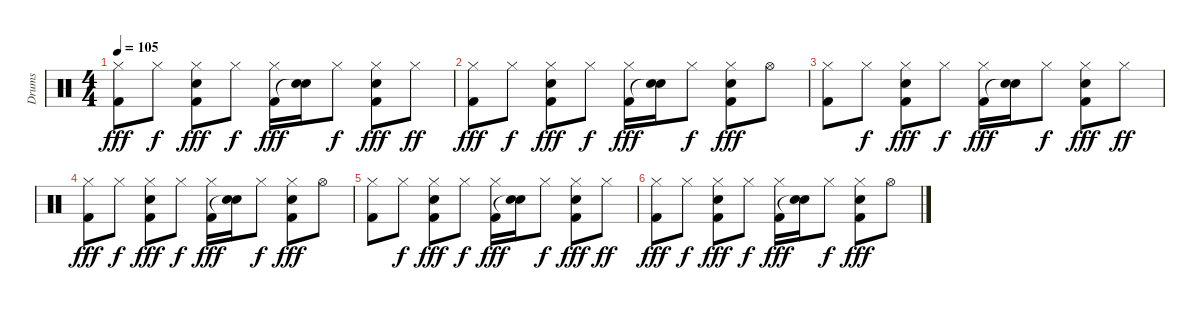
\track ("Drums" "Drums") {instrument percussion}
\staff {score}
\articulation defaults
\ts (4 4)
\tempo 105
\clef neutral
\ks c
("Hi-Hat (closed)" "Kick (hit) 2").8{dy fff} "Hi-Hat (closed)".8{dy f} ("Hi-Hat (closed)" "Electric Snare (hit)" "Kick (hit) 2").8{dy fff} "Hi-Hat (closed)".8{dy f} ("Hi-Hat (closed)" "Kick (hit) 2").16{dy fff} ("Electric Snare (hit)" "Snare (hit)"{t}).16 "Hi-Hat (closed)".8{dy f} ("Hi-Hat (closed)" "Electric Snare (hit)" "Kick (hit) 2").8{dy fff} "Hi-Hat (closed)".8{dy ff} |
("Hi-Hat (closed)" "Kick (hit) 2").8{dy fff} "Hi-Hat (closed)".8{dy f} ("Hi-Hat (closed)" "Electric Snare (hit)" "Kick (hit) 2").8{dy fff} "Hi-Hat (closed)".8{dy f} ("Hi-Hat (closed)" "Kick (hit) 2").16{dy fff} ("Electric Snare (hit)" "Snare (hit)"{t}).16 "Hi-Hat (closed)".8{dy f} ("Hi-Hat (closed)" "Electric Snare (hit)" "Kick (hit) 2").8{dy fff} "Hi-Hat (open)".8 |
("Hi-Hat (closed)" "Kick (hit) 2").8 "Hi-Hat (closed)".8{dy f} ("Hi-Hat (closed)" "Electric Snare (hit)" "Kick (hit) 2").8{dy fff} "Hi-Hat (closed)".8{dy f} ("Hi-Hat (closed)" "Kick (hit) 2").16{dy fff} ("Electric Snare (hit)" "Snare (hit)"{t}).16 "Hi-Hat (closed)".8{dy f} ("Hi-Hat (closed)" "Electric Snare (hit)" "Kick (hit) 2").8{dy fff} "Hi-Hat (closed)".8{dy ff} |
("Hi-Hat (closed)" "Kick (hit) 2").8{dy fff} "Hi-Hat (closed)".8{dy f} ("Hi-Hat (closed)" "Electric Snare (hit)" "Kick (hit) 2").8{dy fff} "Hi-Hat (closed)".8{dy f} ("Hi-Hat (closed)" "Kick (hit) 2").16{dy fff} ("Electric Snare (hit)" "Snare (hit)"{t}).16 "Hi-Hat (closed)".8{dy f} ("Hi-Hat (closed)" "Electric Snare (hit)" "Kick (hit) 2").8{dy fff} "Hi-Hat (open)".8 |
("Hi-Hat (closed)" "Kick (hit) 2").8 "Hi-Hat (closed)".8{dy f} ("Hi-Hat (closed)" "Electric Snare (hit)" "Kick (hit) 2").8{dy fff} "Hi-Hat (closed)".8{dy f} ("Hi-Hat (closed)" "Kick (hit) 2").16{dy fff} ("Electric Snare (hit)" "Snare (hit)"{t}).16 "Hi-Hat (closed)".8{dy f} ("Hi-Hat (closed)" "Electric Snare (hit)" "Kick (hit) 2").8{dy fff} "Hi-Hat (closed)".8{dy ff} |
("Hi-Hat (closed)" "Kick (hit) 2").8{dy fff} "Hi-Hat (closed)".8{dy f} ("Hi-Hat (closed)" "Electric Snare (hit)" "Kick (hit) 2").8{dy fff} "Hi-Hat (closed)".8{dy f} ("Hi-Hat (closed)" "Kick (hit) 2").16{dy fff} ("Electric Snare (hit)" "Snare (hit)"{t}).16 "Hi-Hat (closed)".8{dy f} ("Hi-Hat (closed)" "Electric Snare (hit)" "Kick (hit) 2").8{dy fff} "Hi-Hat (open)".8
